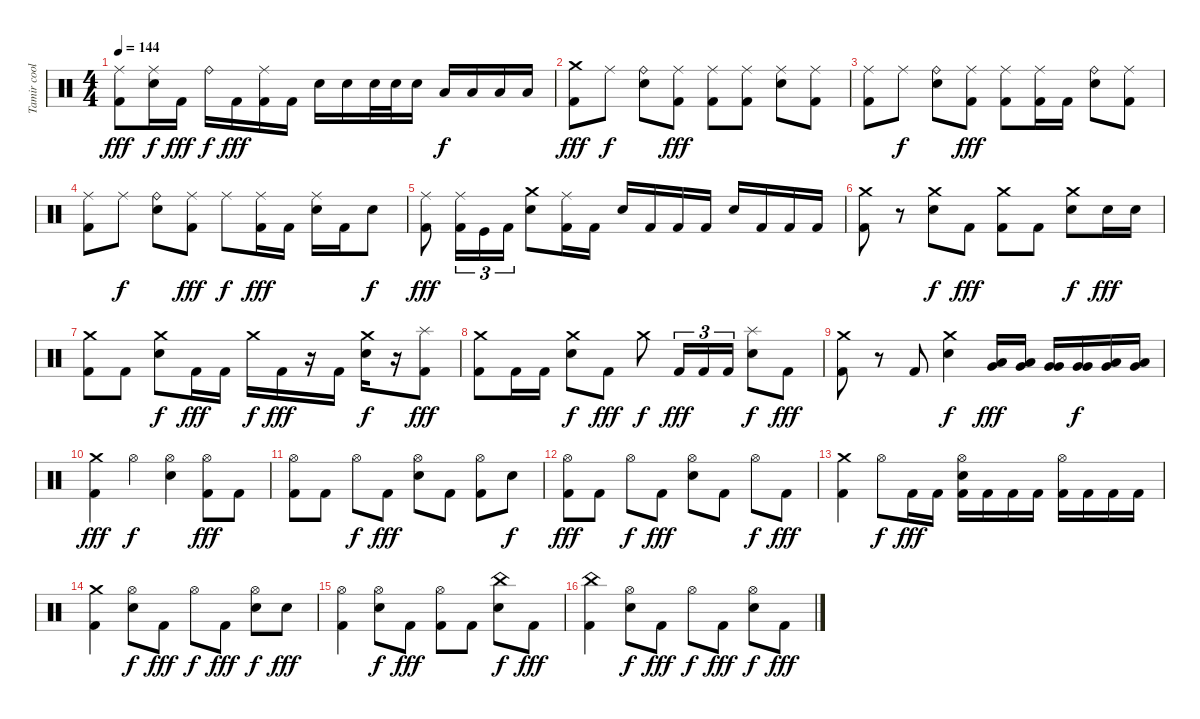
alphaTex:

\track ("Tamir coolberg" "Tamir cool") {instrument percussion}
\staff {score}
\articulation defaults
\ts (4 4)
\tempo 144
\clef neutral
\ks c
("Ride (middle)" "Kick (hit) 2").8{dy fff} ("Ride (middle)" "Snare (hit) 2").16{dy f} "Kick (hit) 2".16{dy fff} "Ride (bell)".16{dy f} "Kick (hit) 2".16{dy fff} ("Ride (middle)" "Kick (hit) 2").16 "Kick (hit) 2".16 "Electric Snare (hit)".16 "Electric Snare (hit)".16 "Electric Snare (hit)".32 "Electric Snare (hit)".32 "Electric Snare (hit)".16 "Low Floor Tom (hit)".16{dy f} "Low Floor Tom (hit)".16 "Low Floor Tom (hit)".16 "Low Floor Tom (hit)".16 |
("Crash medium (hit)" "Kick (hit) 2").8{dy fff} "Ride (middle)".8{dy f} ("Ride (bell)" "Electric Snare (hit)").8 ("Ride (middle)" "Kick (hit) 2").8{dy fff} ("Ride (middle)" "Kick (hit) 2").8 ("Ride (middle)" "Kick (hit) 2").8 ("Ride (middle)" "Electric Snare (hit)").8 ("Ride (middle)" "Kick (hit) 2").8 |
("Ride (middle)" "Kick (hit) 2").8 "Ride (middle)".8{dy f} ("Ride (bell)" "Electric Snare (hit)").8 ("Ride (middle)" "Kick (hit) 2").8{dy fff} ("Ride (middle)" "Kick (hit) 2").8 ("Ride (middle)" "Kick (hit) 2").16 "Kick (hit) 2".16 ("Ride (bell)" "Electric Snare (hit)").8 ("Ride (middle)" "Kick (hit) 2").8 |
("Ride (middle)" "Kick (hit) 2").8 "Ride (middle)".8{dy f} ("Ride (bell)" "Electric Snare (hit)").8 ("Ride (middle)" "Kick (hit) 2").8{dy fff} "Ride (middle)".8{dy f} ("Ride (middle)" "Kick (hit) 2").16{dy fff} "Kick (hit) 2".16 ("Ride (middle)" "Electric Snare (hit)").16 "Kick (hit) 2".16 "Electric Snare (hit)".8{dy f} |
("Ride (middle)" "Kick (hit) 2").8{dy fff} ("Ride (middle)" "Kick (hit) 2").16{tu (3 2)} "Kick (hit)".16{tu (3 2)} "Kick (hit) 2".16{tu (3 2)} ("Crash medium (hit)" "Electric Snare (hit)").8 ("Ride (middle)" "Kick (hit) 2").16 "Kick (hit) 2".16 "Electric Snare (hit)".16 "Kick (hit) 2".16 "Kick (hit) 2".16 "Kick (hit) 2".16 "Electric Snare (hit)".16 "Kick (hit) 2".16 "Kick (hit) 2".16 "Kick (hit) 2".16 |
("Crash medium (hit)" "Kick (hit) 2").8 r.8 ("Crash medium (hit)" "Electric Snare (hit)").8{dy f} "Kick (hit) 2".8{dy fff} ("Crash medium (hit)" "Kick (hit) 2").8 "Kick (hit) 2".8 ("Crash medium (hit)" "Electric Snare (hit)").8{dy f} "Electric Snare (hit)".16{dy fff} "Electric Snare (hit)".16 |
("Crash medium (hit)" "Kick (hit) 2").8 "Kick (hit) 2".8 ("Crash medium (hit)" "Electric Snare (hit)").8{dy f} "Kick (hit) 2".16{dy fff} "Kick (hit) 2".16 "Crash medium (hit)".16{dy f} "Kick (hit) 2".16{dy fff} r.16 "Kick (hit) 2".16 ("Crash medium (hit)" "Electric Snare (hit)").16{dy f} r.16 ("Splash (hit)" "Kick (hit) 2").8{dy fff} |
("Crash medium (hit)" "Kick (hit) 2").8 "Kick (hit) 2".16 "Kick (hit) 2".16 ("Crash medium (hit)" "Electric Snare (hit)").8{dy f} "Kick (hit) 2".8{dy fff} "Crash medium (hit)".8{dy f} "Kick (hit) 2".16{tu (3 2) dy fff} "Kick (hit) 2".16{tu (3 2)} "Kick (hit) 2".16{tu (3 2)} ("Splash (hit)" "Electric Snare (hit)").8{dy f} "Kick (hit) 2".8{dy fff} |
("Crash medium (hit)" "Kick (hit) 2").8 r.8 "Kick (hit) 2".8 ("Crash medium (hit)" "Electric Snare (hit)").4{dy f} ("Low Tom (hit)" "Very Low Tom (hit)").16{dy fff} ("Low Tom (hit)" "Very Low Tom (hit)").16 ("Very Low Tom (hit)" "Very Low Tom (hit)").16 ("Very Low Tom (hit)" "Very Low Tom (hit)").16{dy f} ("Low Floor Tom (hit)" "Very Low Tom (hit)").16 ("Low Floor Tom (hit)" "Very Low Tom (hit)").16 |
("Crash medium (hit)" "Kick (hit) 2").4{dy fff} "Hi-Hat (open)".4{dy f} ("Hi-Hat (open)" "Electric Snare (hit)").4 ("Hi-Hat (open)" "Kick (hit) 2").8{dy fff} "Kick (hit) 2".8 |
("Hi-Hat (open)" "Kick (hit) 2").8 "Kick (hit) 2".8 "Hi-Hat (open)".8{dy f} "Kick (hit) 2".8{dy fff} ("Hi-Hat (open)" "Electric Snare (hit)").8 "Kick (hit) 2".8 ("Hi-Hat (open)" "Kick (hit) 2").8 "Electric Snare (hit)".8{dy f} |
("Hi-Hat (open)" "Kick (hit) 2").8{dy fff} "Kick (hit) 2".8 "Hi-Hat (open)".8{dy f} "Kick (hit) 2".8{dy fff} ("Hi-Hat (open)" "Electric Snare (hit)").8 "Kick (hit) 2".8 "Hi-Hat (open)".8{dy f} "Kick (hit) 2".8{dy fff} |
("Crash medium (hit)" "Kick (hit) 2").4 "Hi-Hat (open)".8{dy f} "Kick (hit) 2".16{dy fff} "Kick (hit) 2".16 ("Hi-Hat (open)" "Electric Snare (hit)" "Kick (hit) 2").16 "Kick (hit) 2".16 "Kick (hit) 2".16 "Kick (hit) 2".16 ("Hi-Hat (open)" "Kick (hit) 2").16 "Kick (hit) 2".16 "Kick (hit) 2".16 "Kick (hit) 2".16 |
("Crash medium (hit)" "Kick (hit) 2").4 ("Hi-Hat (open)" "Electric Snare (hit)").8{dy f} "Kick (hit) 2".8{dy fff} "Hi-Hat (open)".8{dy f} "Kick (hit) 2".8{dy fff} ("Hi-Hat (open)" "Electric Snare (hit)").8{dy f} "Electric Snare (hit)".8{dy fff} |
("Hi-Hat (open)" "Kick (hit) 2").4 ("Hi-Hat (open)" "Electric Snare (hit)").8{dy f} "Kick (hit) 2".8{dy fff} ("Hi-Hat (open)" "Kick (hit) 2").8 "Kick (hit) 2".8 ("China (hit)" "Electric Snare (hit)").8{dy f} "Kick (hit) 2".8{dy fff} |
("China (hit)" "Kick (hit) 2").4 ("Hi-Hat (open)" "Electric Snare (hit)").8{dy f} "Kick (hit) 2".8{dy fff} "Hi-Hat (open)".8{dy f} "Kick (hit) 2".8{dy fff} ("Hi-Hat (open)" "Electric Snare (hit)").8{dy f} "Kick (hit) 2".8{dy fff}
